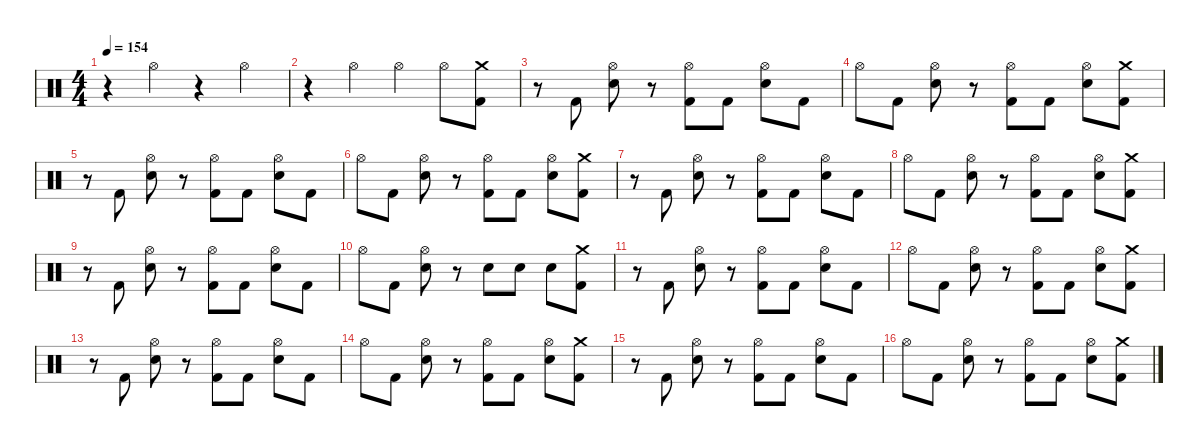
\defaultSystemsLayout 4
\hideDynamics
\bracketExtendMode nobrackets
\singleTrackTrackNamePolicy hidden
\multiTrackTrackNamePolicy hidden
\firstSystemTrackNameMode fullname
\firstSystemTrackNameOrientation horizontal
\otherSystemsTrackNameOrientation horizontal
\track ("Percussie" "drm.") {instrument percussion}
\staff {score}
\articulation defaults
\ts (4 4)
\tempo 154
\clef neutral
\ks c
r.4{dy f beam Down} "Hi-Hat (open)".4{beam Down} r.4{beam Down} "Hi-Hat (open)".4{beam Down} |
r.4{beam Down} "Hi-Hat (open)".4{beam Down} "Hi-Hat (open)".4{beam Down} "Hi-Hat (open)".8{beam Down} ("Crash medium (hit)" "Kick (hit) 2").8{beam Down} |
r.8{beam Down} "Kick (hit) 2".8{beam Up} ("Hi-Hat (open)" "Snare (hit) 2").8{beam Down} r.8{beam Down} ("Hi-Hat (open)" "Kick (hit) 2").8{beam Down} "Kick (hit) 2".8{beam Down} ("Hi-Hat (open)" "Snare (hit) 2").8{beam Down} "Kick (hit) 2".8{beam Down} |
"Hi-Hat (open)".8{beam Down} "Kick (hit) 2".8{beam Down} ("Hi-Hat (open)" "Snare (hit) 2").8{beam Down} r.8{beam Down} ("Hi-Hat (open)" "Kick (hit) 2").8{beam Down} "Kick (hit) 2".8{beam Down} ("Hi-Hat (open)" "Snare (hit) 2").8{beam Down} ("Crash medium (hit)" "Kick (hit) 2").8{beam Down} |
r.8{beam Down} "Kick (hit) 2".8{beam Up} ("Hi-Hat (open)" "Snare (hit) 2").8{beam Down} r.8{beam Down} ("Hi-Hat (open)" "Kick (hit) 2").8{beam Down} "Kick (hit) 2".8{beam Down} ("Hi-Hat (open)" "Snare (hit) 2").8{beam Down} "Kick (hit) 2".8{beam Down} |
"Hi-Hat (open)".8{beam Down} "Kick (hit) 2".8{beam Down} ("Hi-Hat (open)" "Snare (hit) 2").8{beam Down} r.8{beam Down} ("Hi-Hat (open)" "Kick (hit) 2").8{beam Down} "Kick (hit) 2".8{beam Down} ("Hi-Hat (open)" "Snare (hit) 2").8{beam Down} ("Crash medium (hit)" "Kick (hit) 2").8{beam Down} |
r.8{beam Down} "Kick (hit) 2".8{beam Up} ("Hi-Hat (open)" "Snare (hit) 2").8{beam Down} r.8{beam Down} ("Hi-Hat (open)" "Kick (hit) 2").8{beam Down} "Kick (hit) 2".8{beam Down} ("Hi-Hat (open)" "Snare (hit) 2").8{beam Down} "Kick (hit) 2".8{beam Down} |
"Hi-Hat (open)".8{beam Down} "Kick (hit) 2".8{beam Down} ("Hi-Hat (open)" "Snare (hit) 2").8{beam Down} r.8{beam Down} ("Hi-Hat (open)" "Kick (hit) 2").8{beam Down} "Kick (hit) 2".8{beam Down} ("Hi-Hat (open)" "Snare (hit) 2").8{beam Down} ("Crash medium (hit)" "Kick (hit) 2").8{beam Down} |
r.8{beam Down} "Kick (hit) 2".8{beam Up} ("Hi-Hat (open)" "Snare (hit) 2").8{beam Down} r.8{beam Down} ("Hi-Hat (open)" "Kick (hit) 2").8{beam Down} "Kick (hit) 2".8{beam Down} ("Hi-Hat (open)" "Snare (hit) 2").8{beam Down} "Kick (hit) 2".8{beam Down} |
"Hi-Hat (open)".8{beam Down} "Kick (hit) 2".8{beam Down} ("Hi-Hat (open)" "Snare (hit) 2").8{beam Down} r.8{beam Down} "Snare (hit) 2".8{beam Down} "Snare (hit) 2".8{beam Down} "Snare (hit) 2".8{beam Down} ("Crash medium (hit)" "Kick (hit) 2").8{beam Down} |
r.8{beam Down} "Kick (hit) 2".8{beam Up} ("Hi-Hat (open)" "Snare (hit) 2").8{beam Down} r.8{beam Down} ("Hi-Hat (open)" "Kick (hit) 2").8{beam Down} "Kick (hit) 2".8{beam Down} ("Hi-Hat (open)" "Snare (hit) 2").8{beam Down} "Kick (hit) 2".8{beam Down} |
"Hi-Hat (open)".8{beam Down} "Kick (hit) 2".8{beam Down} ("Hi-Hat (open)" "Snare (hit) 2").8{beam Down} r.8{beam Down} ("Hi-Hat (open)" "Kick (hit) 2").8{beam Down} "Kick (hit) 2".8{beam Down} ("Hi-Hat (open)" "Snare (hit) 2").8{beam Down} ("Crash medium (hit)" "Kick (hit) 2").8{beam Down} |
r.8{beam Down} "Kick (hit) 2".8{beam Up} ("Hi-Hat (open)" "Snare (hit) 2").8{beam Down} r.8{beam Down} ("Hi-Hat (open)" "Kick (hit) 2").8{beam Down} "Kick (hit) 2".8{beam Down} ("Hi-Hat (open)" "Snare (hit) 2").8{beam Down} "Kick (hit) 2".8{beam Down} |
"Hi-Hat (open)".8{beam Down} "Kick (hit) 2".8{beam Down} ("Hi-Hat (open)" "Snare (hit) 2").8{beam Down} r.8{beam Down} ("Hi-Hat (open)" "Kick (hit) 2").8{beam Down} "Kick (hit) 2".8{beam Down} ("Hi-Hat (open)" "Snare (hit) 2").8{beam Down} ("Crash medium (hit)" "Kick (hit) 2").8{beam Down} |
r.8{beam Down} "Kick (hit) 2".8{beam Up} ("Hi-Hat (open)" "Snare (hit) 2").8{beam Down} r.8{beam Down} ("Hi-Hat (open)" "Kick (hit) 2").8{beam Down} "Kick (hit) 2".8{beam Down} ("Hi-Hat (open)" "Snare (hit) 2").8{beam Down} "Kick (hit) 2".8{beam Down} |
"Hi-Hat (open)".8{beam Down} "Kick (hit) 2".8{beam Down} ("Hi-Hat (open)" "Snare (hit) 2").8{beam Down} r.8{beam Down} ("Hi-Hat (open)" "Kick (hit) 2").8{beam Down} "Kick (hit) 2".8{beam Down} ("Hi-Hat (open)" "Snare (hit) 2").8{beam Down} ("Crash medium (hit)" "Kick (hit) 2").8{beam Down}
